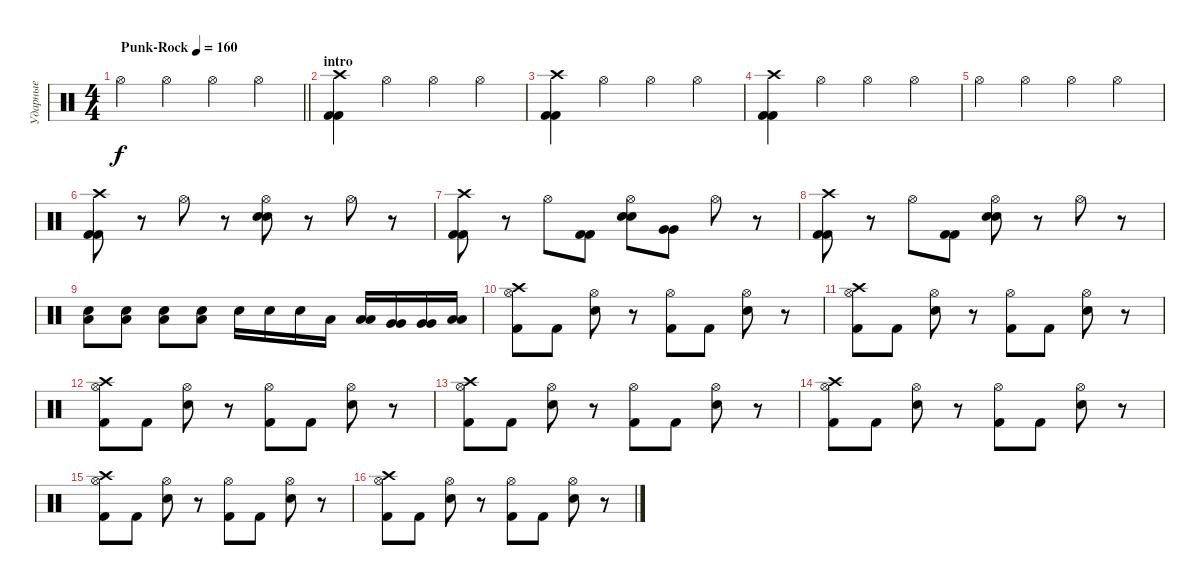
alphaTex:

\track ("Ударные" "Ударные") {instrument percussion}
\staff {score}
\articulation defaults
\ts (4 4)
\tempo (160 "Punk-Rock")
\clef neutral
\barLineRight lightlight
\ks c "Hi-Hat (open)".4{dy f} "Hi-Hat (open)".4 "Hi-Hat (open)".4 "Hi-Hat (open)".4
|
\section ("" "intro")
("Crash high (hit)" "Kick (hit) 2" "Kick (hit) 2").4 "Hi-Hat (open)".4 "Hi-Hat (open)".4 "Hi-Hat (open)".4 |
("Crash high (hit)" "Kick (hit) 2" "Kick (hit) 2").4 "Hi-Hat (open)".4 "Hi-Hat (open)".4 "Hi-Hat (open)".4 |
("Crash high (hit)" "Kick (hit) 2" "Kick (hit) 2").4 "Hi-Hat (open)".4 "Hi-Hat (open)".4 "Hi-Hat (open)".4 |
"Hi-Hat (open)".4 "Hi-Hat (open)".4 "Hi-Hat (open)".4 "Hi-Hat (open)".4 |
("Crash high (hit)" "Kick (hit) 2" "Kick (hit) 2").8 r.8 "Hi-Hat (open)".8 r.8 ("Snare (hit) 2" "Snare (hit) 2" "Hi-Hat (open)").8 r.8 "Hi-Hat (open)".8 r.8 |
("Crash high (hit)" "Kick (hit) 2" "Kick (hit) 2").8 r.8 "Hi-Hat (open)".8 ("Kick (hit) 2" "Kick (hit) 2").8 ("Snare (hit) 2" "Snare (hit) 2" "Hi-Hat (open)").8 ("Very Low Tom (hit)" "Very Low Tom (hit)").8 "Hi-Hat (open)".8 r.8 |
("Crash high (hit)" "Kick (hit) 2" "Kick (hit) 2").8 r.8 "Hi-Hat (open)".8 ("Kick (hit) 2" "Kick (hit) 2").8 ("Snare (hit) 2" "Snare (hit) 2" "Hi-Hat (open)").8 r.8 "Hi-Hat (open)".8 r.8 |
("Low Tom (hit)" "Snare (hit) 2").8 ("Low Tom (hit)" "Snare (hit) 2").8 ("Low Tom (hit)" "Snare (hit) 2").8 ("Low Tom (hit)" "Snare (hit) 2").8 "Snare (hit) 2".16 "Snare (hit) 2".16 "Snare (hit) 2".16 "Low Tom (hit)".16 ("Low Tom (hit)" "Low Tom (hit)").16 ("Very Low Tom (hit)" "Very Low Tom (hit)").16 ("Very Low Tom (hit)" "Very Low Tom (hit)").16 ("Low Floor Tom (hit)" "Low Floor Tom (hit)").16 |
("Crash high (hit)" "Kick (hit) 2" "Hi-Hat (open)").8 "Kick (hit) 2".8 ("Snare (hit) 2" "Hi-Hat (open)").8 r.8 ("Kick (hit) 2" "Hi-Hat (open)").8 "Kick (hit) 2".8 ("Snare (hit) 2" "Hi-Hat (open)").8 r.8 |
("Crash high (hit)" "Kick (hit) 2" "Hi-Hat (open)").8 "Kick (hit) 2".8 ("Snare (hit) 2" "Hi-Hat (open)").8 r.8 ("Kick (hit) 2" "Hi-Hat (open)").8 "Kick (hit) 2".8 ("Snare (hit) 2" "Hi-Hat (open)").8 r.8 |
("Crash high (hit)" "Kick (hit) 2" "Hi-Hat (open)").8 "Kick (hit) 2".8 ("Snare (hit) 2" "Hi-Hat (open)").8 r.8 ("Kick (hit) 2" "Hi-Hat (open)").8 "Kick (hit) 2".8 ("Snare (hit) 2" "Hi-Hat (open)").8 r.8 |
("Crash high (hit)" "Kick (hit) 2" "Hi-Hat (open)").8 "Kick (hit) 2".8 ("Snare (hit) 2" "Hi-Hat (open)").8 r.8 ("Kick (hit) 2" "Hi-Hat (open)").8 "Kick (hit) 2".8 ("Snare (hit) 2" "Hi-Hat (open)").8 r.8 |
("Crash high (hit)" "Kick (hit) 2" "Hi-Hat (open)").8 "Kick (hit) 2".8 ("Snare (hit) 2" "Hi-Hat (open)").8 r.8 ("Kick (hit) 2" "Hi-Hat (open)").8 "Kick (hit) 2".8 ("Snare (hit) 2" "Hi-Hat (open)").8 r.8 |
("Crash high (hit)" "Kick (hit) 2" "Hi-Hat (open)").8 "Kick (hit) 2".8 ("Snare (hit) 2" "Hi-Hat (open)").8 r.8 ("Kick (hit) 2" "Hi-Hat (open)").8 "Kick (hit) 2".8 ("Snare (hit) 2" "Hi-Hat (open)").8 r.8 |
("Crash high (hit)" "Kick (hit) 2" "Hi-Hat (open)").8 "Kick (hit) 2".8 ("Snare (hit) 2" "Hi-Hat (open)").8 r.8 ("Kick (hit) 2" "Hi-Hat (open)").8 "Kick (hit) 2".8 ("Snare (hit) 2" "Hi-Hat (open)").8 r.8
